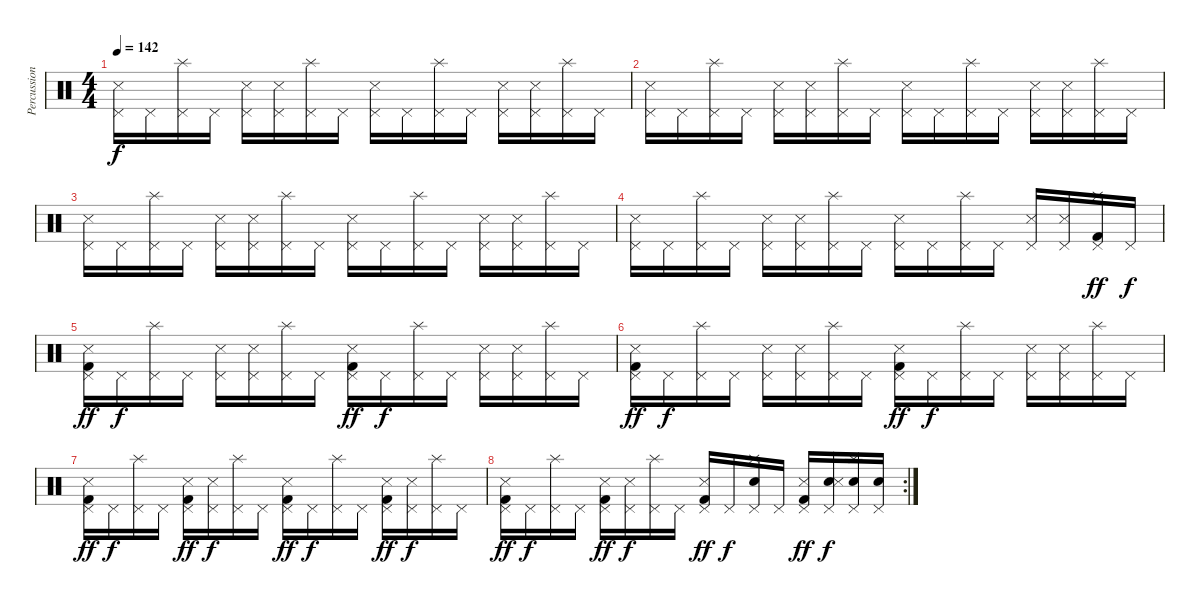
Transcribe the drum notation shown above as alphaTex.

\track ("Percussion" "Percussion") {instrument percussion}
\staff {score}
\articulation defaults
\ts (4 4)
\tempo 142
\clef neutral
\ks c
("Metronome (hit)" "Pedal Hi-Hat (hit)").16{dy f} "Pedal Hi-Hat (hit)".16 ("Splash (hit)" "Pedal Hi-Hat (hit)").16 "Pedal Hi-Hat (hit)".16 ("Metronome (hit)" "Pedal Hi-Hat (hit)").16 ("Metronome (hit)" "Pedal Hi-Hat (hit)").16 ("Splash (hit)" "Pedal Hi-Hat (hit)").16 "Pedal Hi-Hat (hit)".16 ("Metronome (hit)" "Pedal Hi-Hat (hit)").16 "Pedal Hi-Hat (hit)".16 ("Splash (hit)" "Pedal Hi-Hat (hit)").16 "Pedal Hi-Hat (hit)".16 ("Metronome (hit)" "Pedal Hi-Hat (hit)").16 ("Metronome (hit)" "Pedal Hi-Hat (hit)").16 ("Splash (hit)" "Pedal Hi-Hat (hit)").16 "Pedal Hi-Hat (hit)".16 |
("Metronome (hit)" "Pedal Hi-Hat (hit)").16 "Pedal Hi-Hat (hit)".16 ("Splash (hit)" "Pedal Hi-Hat (hit)").16 "Pedal Hi-Hat (hit)".16 ("Metronome (hit)" "Pedal Hi-Hat (hit)").16 ("Metronome (hit)" "Pedal Hi-Hat (hit)").16 ("Splash (hit)" "Pedal Hi-Hat (hit)").16 "Pedal Hi-Hat (hit)".16 ("Metronome (hit)" "Pedal Hi-Hat (hit)").16 "Pedal Hi-Hat (hit)".16 ("Splash (hit)" "Pedal Hi-Hat (hit)").16 "Pedal Hi-Hat (hit)".16 ("Metronome (hit)" "Pedal Hi-Hat (hit)").16 ("Metronome (hit)" "Pedal Hi-Hat (hit)").16 ("Splash (hit)" "Pedal Hi-Hat (hit)").16 "Pedal Hi-Hat (hit)".16 |
("Metronome (hit)" "Pedal Hi-Hat (hit)").16 "Pedal Hi-Hat (hit)".16 ("Splash (hit)" "Pedal Hi-Hat (hit)").16 "Pedal Hi-Hat (hit)".16 ("Metronome (hit)" "Pedal Hi-Hat (hit)").16 ("Metronome (hit)" "Pedal Hi-Hat (hit)").16 ("Splash (hit)" "Pedal Hi-Hat (hit)").16 "Pedal Hi-Hat (hit)".16 ("Metronome (hit)" "Pedal Hi-Hat (hit)").16 "Pedal Hi-Hat (hit)".16 ("Splash (hit)" "Pedal Hi-Hat (hit)").16 "Pedal Hi-Hat (hit)".16 ("Metronome (hit)" "Pedal Hi-Hat (hit)").16 ("Metronome (hit)" "Pedal Hi-Hat (hit)").16 ("Splash (hit)" "Pedal Hi-Hat (hit)").16 "Pedal Hi-Hat (hit)".16 |
("Metronome (hit)" "Pedal Hi-Hat (hit)").16 "Pedal Hi-Hat (hit)".16 ("Splash (hit)" "Pedal Hi-Hat (hit)").16 "Pedal Hi-Hat (hit)".16 ("Metronome (hit)" "Pedal Hi-Hat (hit)").16 ("Metronome (hit)" "Pedal Hi-Hat (hit)").16 ("Splash (hit)" "Pedal Hi-Hat (hit)").16 "Pedal Hi-Hat (hit)".16 ("Metronome (hit)" "Pedal Hi-Hat (hit)").16 "Pedal Hi-Hat (hit)".16 ("Splash (hit)" "Pedal Hi-Hat (hit)").16 "Pedal Hi-Hat (hit)".16 ("Metronome (hit)" "Pedal Hi-Hat (hit)").16 ("Metronome (hit)" "Pedal Hi-Hat (hit)").16 ("Kick (hit) 2" "Splash (hit)" "Pedal Hi-Hat (hit)").16{dy ff} "Pedal Hi-Hat (hit)".16{dy f} |
("Kick (hit) 2" "Metronome (hit)" "Pedal Hi-Hat (hit)").16{dy ff} "Pedal Hi-Hat (hit)".16{dy f} ("Splash (hit)" "Pedal Hi-Hat (hit)").16 "Pedal Hi-Hat (hit)".16 ("Metronome (hit)" "Pedal Hi-Hat (hit)").16 ("Metronome (hit)" "Pedal Hi-Hat (hit)").16 ("Splash (hit)" "Pedal Hi-Hat (hit)").16 "Pedal Hi-Hat (hit)".16 ("Kick (hit) 2" "Metronome (hit)" "Pedal Hi-Hat (hit)").16{dy ff} "Pedal Hi-Hat (hit)".16{dy f} ("Splash (hit)" "Pedal Hi-Hat (hit)").16 "Pedal Hi-Hat (hit)".16 ("Metronome (hit)" "Pedal Hi-Hat (hit)").16 ("Metronome (hit)" "Pedal Hi-Hat (hit)").16 ("Splash (hit)" "Pedal Hi-Hat (hit)").16 "Pedal Hi-Hat (hit)".16 |
("Kick (hit) 2" "Metronome (hit)" "Pedal Hi-Hat (hit)").16{dy ff} "Pedal Hi-Hat (hit)".16{dy f} ("Splash (hit)" "Pedal Hi-Hat (hit)").16 "Pedal Hi-Hat (hit)".16 ("Metronome (hit)" "Pedal Hi-Hat (hit)").16 ("Metronome (hit)" "Pedal Hi-Hat (hit)").16 ("Splash (hit)" "Pedal Hi-Hat (hit)").16 "Pedal Hi-Hat (hit)".16 ("Kick (hit) 2" "Metronome (hit)" "Pedal Hi-Hat (hit)").16{dy ff} "Pedal Hi-Hat (hit)".16{dy f} ("Splash (hit)" "Pedal Hi-Hat (hit)").16 "Pedal Hi-Hat (hit)".16 ("Metronome (hit)" "Pedal Hi-Hat (hit)").16 ("Metronome (hit)" "Pedal Hi-Hat (hit)").16 ("Splash (hit)" "Pedal Hi-Hat (hit)").16 "Pedal Hi-Hat (hit)".16 |
("Kick (hit) 2" "Metronome (hit)" "Pedal Hi-Hat (hit)").16{dy ff} "Pedal Hi-Hat (hit)".16{dy f} ("Splash (hit)" "Pedal Hi-Hat (hit)").16 "Pedal Hi-Hat (hit)".16 ("Kick (hit) 2" "Metronome (hit)" "Pedal Hi-Hat (hit)").16{dy ff} ("Metronome (hit)" "Pedal Hi-Hat (hit)").16{dy f} ("Splash (hit)" "Pedal Hi-Hat (hit)").16 "Pedal Hi-Hat (hit)".16 ("Kick (hit) 2" "Metronome (hit)" "Pedal Hi-Hat (hit)").16{dy ff} "Pedal Hi-Hat (hit)".16{dy f} ("Splash (hit)" "Pedal Hi-Hat (hit)").16 "Pedal Hi-Hat (hit)".16 ("Kick (hit) 2" "Metronome (hit)" "Pedal Hi-Hat (hit)").16{dy ff} ("Metronome (hit)" "Pedal Hi-Hat (hit)").16{dy f} ("Splash (hit)" "Pedal Hi-Hat (hit)").16 "Pedal Hi-Hat (hit)".16 |
\rc 2
("Kick (hit) 2" "Metronome (hit)" "Pedal Hi-Hat (hit)").16{dy ff} "Pedal Hi-Hat (hit)".16{dy f} ("Splash (hit)" "Pedal Hi-Hat (hit)").16 "Pedal Hi-Hat (hit)".16 ("Kick (hit) 2" "Metronome (hit)" "Pedal Hi-Hat (hit)").16{dy ff} ("Metronome (hit)" "Pedal Hi-Hat (hit)").16{dy f} ("Splash (hit)" "Pedal Hi-Hat (hit)").16 "Pedal Hi-Hat (hit)".16 ("Kick (hit) 2" "Metronome (hit)" "Pedal Hi-Hat (hit)").16{dy ff} "Pedal Hi-Hat (hit)".16{dy f} ("Electric Snare (hit)" "Splash (hit)" "Pedal Hi-Hat (hit)").16 "Pedal Hi-Hat (hit)".16 ("Kick (hit) 2" "Metronome (hit)" "Pedal Hi-Hat (hit)").16{dy ff} ("Electric Snare (hit)" "Metronome (hit)" "Pedal Hi-Hat (hit)").16{dy f} ("Electric Snare (hit)" "Splash (hit)" "Pedal Hi-Hat (hit)").16 ("Electric Snare (hit)" "Pedal Hi-Hat (hit)").16
